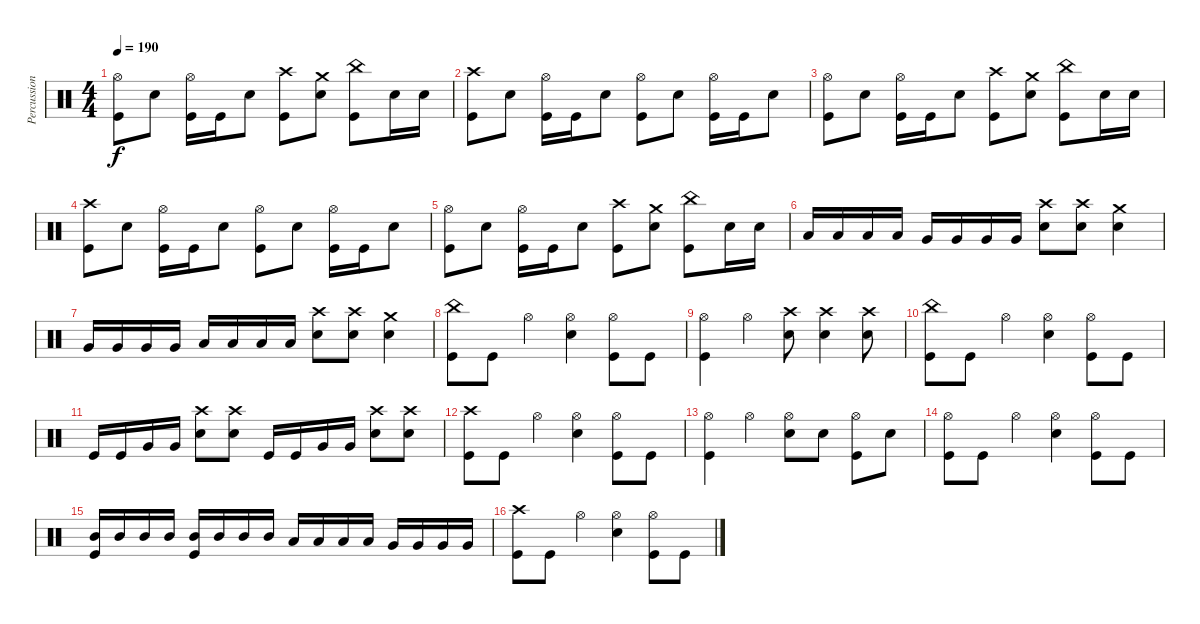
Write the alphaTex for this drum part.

\track ("Percussion" "Percussion") {instrument percussion}
\staff {score}
\articulation defaults
\ts (4 4)
\tempo 190
\clef neutral
\ks c
("Hi-Hat (open)" "Kick (hit)").8{dy f} "Snare (hit) 2".8 ("Hi-Hat (open)" "Kick (hit)").16 "Kick (hit)".16 "Snare (hit) 2".8 ("Crash high (hit)" "Kick (hit)").8 ("Crash medium (hit)" "Snare (hit) 2").8 ("China (hit)" "Kick (hit)").8 "Snare (hit) 2".16 "Snare (hit) 2".16 |
("Crash high (hit)" "Kick (hit)").8 "Snare (hit) 2".8 ("Hi-Hat (open)" "Kick (hit)").16 "Kick (hit)".16 "Snare (hit) 2".8 ("Hi-Hat (open)" "Kick (hit)").8 "Snare (hit) 2".8 ("Hi-Hat (open)" "Kick (hit)").16 "Kick (hit)".16 "Snare (hit) 2".8 |
("Hi-Hat (open)" "Kick (hit)").8 "Snare (hit) 2".8 ("Hi-Hat (open)" "Kick (hit)").16 "Kick (hit)".16 "Snare (hit) 2".8 ("Crash high (hit)" "Kick (hit)").8 ("Crash medium (hit)" "Snare (hit) 2").8 ("China (hit)" "Kick (hit)").8 "Snare (hit) 2".16 "Snare (hit) 2".16 |
("Crash high (hit)" "Kick (hit)").8 "Snare (hit) 2".8 ("Hi-Hat (open)" "Kick (hit)").16 "Kick (hit)".16 "Snare (hit) 2".8 ("Hi-Hat (open)" "Kick (hit)").8 "Snare (hit) 2".8 ("Hi-Hat (open)" "Kick (hit)").16 "Kick (hit)".16 "Snare (hit) 2".8 |
("Hi-Hat (open)" "Kick (hit)").8 "Snare (hit) 2".8 ("Hi-Hat (open)" "Kick (hit)").16 "Kick (hit)".16 "Snare (hit) 2".8 ("Crash high (hit)" "Kick (hit)").8 ("Crash medium (hit)" "Snare (hit) 2").8 ("China (hit)" "Kick (hit)").8 "Snare (hit) 2".16 "Snare (hit) 2".16 |
"Low Tom (hit)".16 "Low Tom (hit)".16 "Low Tom (hit)".16 "Low Tom (hit)".16 "Very Low Tom (hit)".16 "Very Low Tom (hit)".16 "Very Low Tom (hit)".16 "Very Low Tom (hit)".16 ("Crash high (hit)" "Snare (hit) 2").8 ("Crash high (hit)" "Snare (hit) 2").8 ("Crash medium (hit)" "Snare (hit) 2").4 |
"Very Low Tom (hit)".16 "Very Low Tom (hit)".16 "Very Low Tom (hit)".16 "Very Low Tom (hit)".16 "Low Floor Tom (hit)".16 "Low Floor Tom (hit)".16 "Low Floor Tom (hit)".16 "Low Floor Tom (hit)".16 ("Crash high (hit)" "Snare (hit) 2").8 ("Crash high (hit)" "Snare (hit) 2").8 ("Crash medium (hit)" "Snare (hit) 2").4 |
("China (hit)" "Kick (hit)").8 "Kick (hit)".8 "Hi-Hat (open)".4 ("Hi-Hat (open)" "Snare (hit) 2").4 ("Hi-Hat (open)" "Kick (hit)").8 "Kick (hit)".8 |
("Hi-Hat (open)" "Kick (hit)").4 "Hi-Hat (open)".4 ("Crash high (hit)" "Snare (hit) 2").8 ("Crash high (hit)" "Snare (hit) 2").4 ("Crash high (hit)" "Snare (hit) 2").8 |
("China (hit)" "Kick (hit)").8 "Kick (hit)".8 "Hi-Hat (open)".4 ("Hi-Hat (open)" "Snare (hit) 2").4 ("Hi-Hat (open)" "Kick (hit)").8 "Kick (hit)".8 |
"Kick (hit)".16 "Kick (hit)".16 "Very Low Tom (hit)".16 "Very Low Tom (hit)".16 ("Crash high (hit)" "Snare (hit) 2").8 ("Crash high (hit)" "Snare (hit) 2").8 "Kick (hit)".16 "Kick (hit)".16 "Very Low Tom (hit)".16 "Very Low Tom (hit)".16 ("Crash high (hit)" "Snare (hit) 2").8 ("Crash high (hit)" "Snare (hit) 2").8 |
("Crash high (hit)" "Kick (hit)").8 "Kick (hit)".8 "Hi-Hat (open)".4 ("Hi-Hat (open)" "Snare (hit) 2").4 ("Hi-Hat (open)" "Kick (hit)").8 "Kick (hit)".8 |
("Hi-Hat (open)" "Kick (hit)").4 "Hi-Hat (open)".4 ("Hi-Hat (open)" "Snare (hit) 2").8 "Snare (hit) 2".8 ("Hi-Hat (open)" "Kick (hit)").8 "Snare (hit) 2".8 |
("Hi-Hat (open)" "Kick (hit)").8 "Kick (hit)".8 "Hi-Hat (open)".4 ("Hi-Hat (open)" "Snare (hit) 2").4 ("Hi-Hat (open)" "Kick (hit)").8 "Kick (hit)".8 |
("Mid Tom (hit)" "Kick (hit)").16 "Mid Tom (hit)".16 "Mid Tom (hit)".16 "Mid Tom (hit)".16 ("Mid Tom (hit)" "Kick (hit)").16 "Mid Tom (hit)".16 "Mid Tom (hit)".16 "Mid Tom (hit)".16 "Low Tom (hit)".16 "Low Tom (hit)".16 "Low Tom (hit)".16 "Low Tom (hit)".16 "Very Low Tom (hit)".16 "Very Low Tom (hit)".16 "Very Low Tom (hit)".16 "Very Low Tom (hit)".16 |
("Crash high (hit)" "Kick (hit)").8 "Kick (hit)".8 "Hi-Hat (open)".4 ("Hi-Hat (open)" "Snare (hit) 2").4 ("Hi-Hat (open)" "Kick (hit)").8 "Kick (hit)".8
